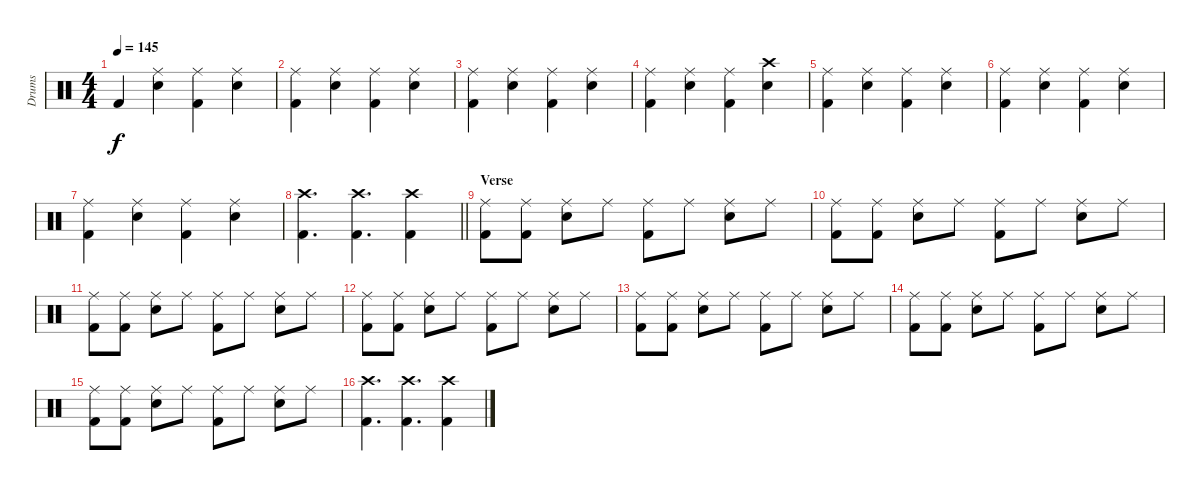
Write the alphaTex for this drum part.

\track ("Drums" "Drums") {instrument percussion}
\staff {score}
\articulation defaults
\ts (4 4)
\tempo 145
\clef neutral
\ks c "Kick (hit) 2".4{dy f}
("Ride (middle)" "Electric Snare (hit)").4 ("Ride (middle)" "Kick (hit) 2").4 ("Ride (middle)" "Electric Snare (hit)").4 |
("Ride (middle)" "Kick (hit) 2").4 ("Ride (middle)" "Electric Snare (hit)").4 ("Ride (middle)" "Kick (hit) 2").4 ("Ride (middle)" "Electric Snare (hit)").4 |
("Ride (middle)" "Kick (hit) 2").4 ("Ride (middle)" "Electric Snare (hit)").4 ("Ride (middle)" "Kick (hit) 2").4 ("Ride (middle)" "Electric Snare (hit)").4 |
("Ride (middle)" "Kick (hit) 2").4 ("Ride (middle)" "Electric Snare (hit)").4 ("Ride (middle)" "Kick (hit) 2").4 ("Crash high (hit)" "Electric Snare (hit)").4 |
("Ride (middle)" "Kick (hit) 2").4 ("Ride (middle)" "Electric Snare (hit)").4 ("Ride (middle)" "Kick (hit) 2").4 ("Ride (middle)" "Electric Snare (hit)").4 |
("Ride (middle)" "Kick (hit) 2").4 ("Ride (middle)" "Electric Snare (hit)").4 ("Ride (middle)" "Kick (hit) 2").4 ("Ride (middle)" "Electric Snare (hit)").4 |
("Ride (middle)" "Kick (hit) 2").4 ("Ride (middle)" "Electric Snare (hit)").4 ("Ride (middle)" "Kick (hit) 2").4 ("Ride (middle)" "Electric Snare (hit)").4 |
\barLineRight lightlight
("Crash high (hit)" "Kick (hit) 2").4{d} ("Crash high (hit)" "Kick (hit) 2").4{d} ("Crash high (hit)" "Kick (hit) 2").4 |
\section ("" "Verse")
("Ride (middle)" "Kick (hit) 2").8 ("Ride (middle)" "Kick (hit) 2").8 ("Ride (middle)" "Electric Snare (hit)").8 "Ride (middle)".8 ("Ride (middle)" "Kick (hit) 2").8 "Ride (middle)".8 ("Ride (middle)" "Electric Snare (hit)").8 "Ride (middle)".8 |
("Ride (middle)" "Kick (hit) 2").8 ("Ride (middle)" "Kick (hit) 2").8 ("Ride (middle)" "Electric Snare (hit)").8 "Ride (middle)".8 ("Ride (middle)" "Kick (hit) 2").8 "Ride (middle)".8 ("Ride (middle)" "Electric Snare (hit)").8 "Ride (middle)".8 |
("Ride (middle)" "Kick (hit) 2").8 ("Ride (middle)" "Kick (hit) 2").8 ("Ride (middle)" "Electric Snare (hit)").8 "Ride (middle)".8 ("Ride (middle)" "Kick (hit) 2").8 "Ride (middle)".8 ("Ride (middle)" "Electric Snare (hit)").8 "Ride (middle)".8 |
("Ride (middle)" "Kick (hit) 2").8 ("Ride (middle)" "Kick (hit) 2").8 ("Ride (middle)" "Electric Snare (hit)").8 "Ride (middle)".8 ("Ride (middle)" "Kick (hit) 2").8 "Ride (middle)".8 ("Ride (middle)" "Electric Snare (hit)").8 "Ride (middle)".8 |
("Ride (middle)" "Kick (hit) 2").8 ("Ride (middle)" "Kick (hit) 2").8 ("Ride (middle)" "Electric Snare (hit)").8 "Ride (middle)".8 ("Ride (middle)" "Kick (hit) 2").8 "Ride (middle)".8 ("Ride (middle)" "Electric Snare (hit)").8 "Ride (middle)".8 |
("Ride (middle)" "Kick (hit) 2").8 ("Ride (middle)" "Kick (hit) 2").8 ("Ride (middle)" "Electric Snare (hit)").8 "Ride (middle)".8 ("Ride (middle)" "Kick (hit) 2").8 "Ride (middle)".8 ("Ride (middle)" "Electric Snare (hit)").8 "Ride (middle)".8 |
("Ride (middle)" "Kick (hit) 2").8 ("Ride (middle)" "Kick (hit) 2").8 ("Ride (middle)" "Electric Snare (hit)").8 "Ride (middle)".8 ("Ride (middle)" "Kick (hit) 2").8 "Ride (middle)".8 ("Ride (middle)" "Electric Snare (hit)").8 "Ride (middle)".8 |
("Crash high (hit)" "Kick (hit) 2").4{d} ("Crash high (hit)" "Kick (hit) 2").4{d} ("Crash high (hit)" "Kick (hit) 2").4
